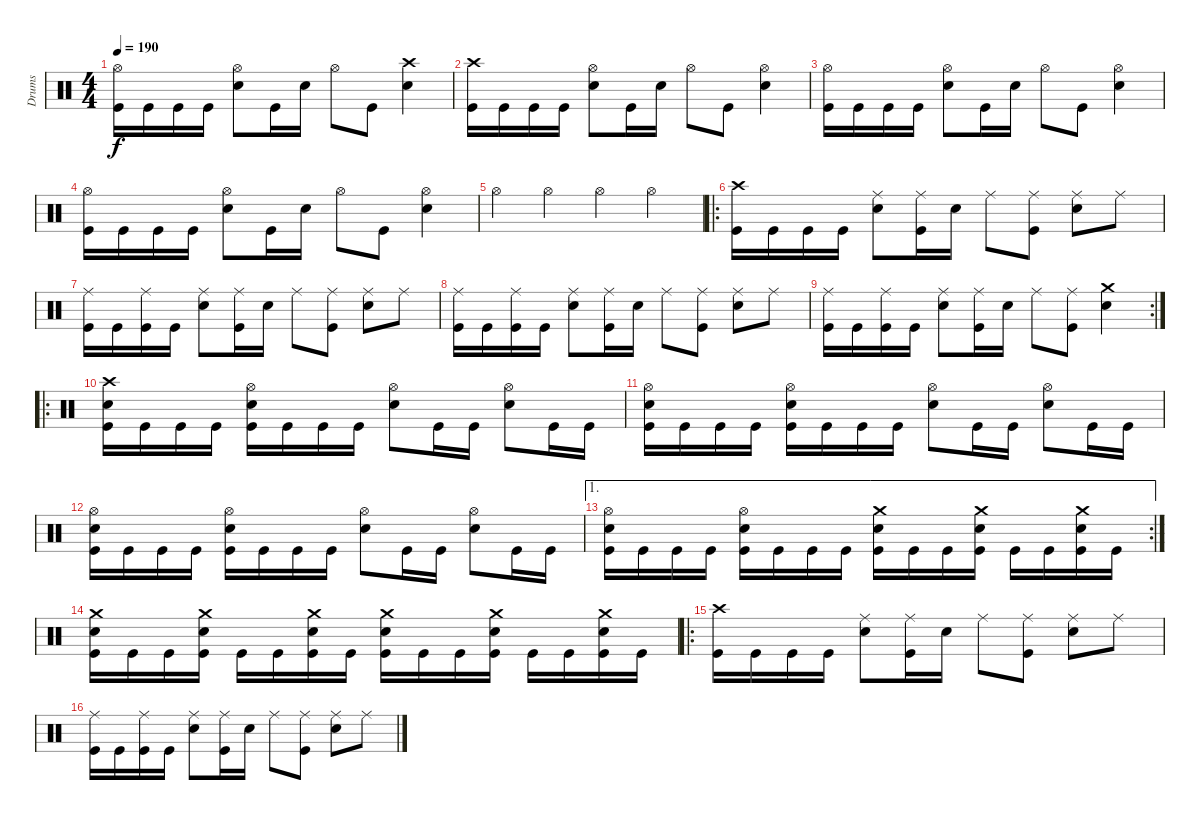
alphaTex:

\track ("Drums" "Drums") {instrument percussion}
\staff {score}
\articulation defaults
\ts (4 4)
\tempo 190
\clef neutral
\ks c
("Hi-Hat (open)" "Kick (hit)").16{dy f} "Kick (hit)".16 "Kick (hit)".16 "Kick (hit)".16 ("Hi-Hat (open)" "Electric Snare (hit)").8 "Kick (hit)".16 "Electric Snare (hit)".16 "Hi-Hat (open)".8 "Kick (hit)".8 ("Crash high (hit)" "Electric Snare (hit)").4 |
("Crash high (hit)" "Kick (hit)").16 "Kick (hit)".16 "Kick (hit)".16 "Kick (hit)".16 ("Hi-Hat (open)" "Electric Snare (hit)").8 "Kick (hit)".16 "Electric Snare (hit)".16 "Hi-Hat (open)".8 "Kick (hit)".8 ("Hi-Hat (open)" "Electric Snare (hit)").4 |
("Hi-Hat (open)" "Kick (hit)").16 "Kick (hit)".16 "Kick (hit)".16 "Kick (hit)".16 ("Hi-Hat (open)" "Electric Snare (hit)").8 "Kick (hit)".16 "Electric Snare (hit)".16 "Hi-Hat (open)".8 "Kick (hit)".8 ("Hi-Hat (open)" "Electric Snare (hit)").4 |
("Hi-Hat (open)" "Kick (hit)").16 "Kick (hit)".16 "Kick (hit)".16 "Kick (hit)".16 ("Hi-Hat (open)" "Electric Snare (hit)").8 "Kick (hit)".16 "Electric Snare (hit)".16 "Hi-Hat (open)".8 "Kick (hit)".8 ("Hi-Hat (open)" "Electric Snare (hit)").4 |
"Hi-Hat (open)".4 "Hi-Hat (open)".4 "Hi-Hat (open)".4 "Hi-Hat (open)".4 |
\ro
("Crash high (hit)" "Kick (hit)").16 "Kick (hit)".16 "Kick (hit)".16 "Kick (hit)".16 ("Ride (middle)" "Electric Snare (hit)").8 ("Ride (middle)" "Kick (hit)").16 "Electric Snare (hit)".16 "Ride (middle)".8 ("Ride (middle)" "Kick (hit)").8 ("Ride (middle)" "Electric Snare (hit)").8 "Ride (middle)".8 |
("Ride (middle)" "Kick (hit)").16 "Kick (hit)".16 ("Ride (middle)" "Kick (hit)").16 "Kick (hit)".16 ("Ride (middle)" "Electric Snare (hit)").8 ("Ride (middle)" "Kick (hit)").16 "Electric Snare (hit)".16 "Ride (middle)".8 ("Ride (middle)" "Kick (hit)").8 ("Ride (middle)" "Electric Snare (hit)").8 "Ride (middle)".8 |
("Ride (middle)" "Kick (hit)").16 "Kick (hit)".16 ("Ride (middle)" "Kick (hit)").16 "Kick (hit)".16 ("Ride (middle)" "Electric Snare (hit)").8 ("Ride (middle)" "Kick (hit)").16 "Electric Snare (hit)".16 "Ride (middle)".8 ("Ride (middle)" "Kick (hit)").8 ("Ride (middle)" "Electric Snare (hit)").8 "Ride (middle)".8 |
\rc 2
("Ride (middle)" "Kick (hit)").16 "Kick (hit)".16 ("Ride (middle)" "Kick (hit)").16 "Kick (hit)".16 ("Ride (middle)" "Electric Snare (hit)").8 ("Ride (middle)" "Kick (hit)").16 "Electric Snare (hit)".16 "Ride (middle)".8 ("Ride (middle)" "Kick (hit)").8 ("Crash medium (hit)" "Electric Snare (hit)").4 |
\ro
("Crash high (hit)" "Electric Snare (hit)" "Kick (hit)").16 "Kick (hit)".16 "Kick (hit)".16 "Kick (hit)".16 ("Hi-Hat (open)" "Electric Snare (hit)" "Kick (hit)").16 "Kick (hit)".16 "Kick (hit)".16 "Kick (hit)".16 ("Hi-Hat (open)" "Electric Snare (hit)").8 "Kick (hit)".16 "Kick (hit)".16 ("Hi-Hat (open)" "Electric Snare (hit)").8 "Kick (hit)".16 "Kick (hit)".16 |
("Hi-Hat (open)" "Electric Snare (hit)" "Kick (hit)").16 "Kick (hit)".16 "Kick (hit)".16 "Kick (hit)".16 ("Hi-Hat (open)" "Electric Snare (hit)" "Kick (hit)").16 "Kick (hit)".16 "Kick (hit)".16 "Kick (hit)".16 ("Hi-Hat (open)" "Electric Snare (hit)").8 "Kick (hit)".16 "Kick (hit)".16 ("Hi-Hat (open)" "Electric Snare (hit)").8 "Kick (hit)".16 "Kick (hit)".16 |
("Hi-Hat (open)" "Electric Snare (hit)" "Kick (hit)").16 "Kick (hit)".16 "Kick (hit)".16 "Kick (hit)".16 ("Hi-Hat (open)" "Electric Snare (hit)" "Kick (hit)").16 "Kick (hit)".16 "Kick (hit)".16 "Kick (hit)".16 ("Hi-Hat (open)" "Electric Snare (hit)").8 "Kick (hit)".16 "Kick (hit)".16 ("Hi-Hat (open)" "Electric Snare (hit)").8 "Kick (hit)".16 "Kick (hit)".16 |
\ae 1
\rc 2
("Hi-Hat (open)" "Electric Snare (hit)" "Kick (hit)").16 "Kick (hit)".16 "Kick (hit)".16 "Kick (hit)".16 ("Hi-Hat (open)" "Electric Snare (hit)" "Kick (hit)").16 "Kick (hit)".16 "Kick (hit)".16 "Kick (hit)".16 ("Crash medium (hit)" "Electric Snare (hit)" "Kick (hit)").16 "Kick (hit)".16 "Kick (hit)".16 ("Crash medium (hit)" "Electric Snare (hit)" "Kick (hit)").16 "Kick (hit)".16 "Kick (hit)".16 ("Crash medium (hit)" "Electric Snare (hit)" "Kick (hit)").16 "Kick (hit)".16 |
("Crash medium (hit)" "Electric Snare (hit)" "Kick (hit)").16 "Kick (hit)".16 "Kick (hit)".16 ("Crash medium (hit)" "Electric Snare (hit)" "Kick (hit)").16 "Kick (hit)".16 "Kick (hit)".16 ("Crash medium (hit)" "Electric Snare (hit)" "Kick (hit)").16 "Kick (hit)".16 ("Crash medium (hit)" "Electric Snare (hit)" "Kick (hit)").16 "Kick (hit)".16 "Kick (hit)".16 ("Crash medium (hit)" "Electric Snare (hit)" "Kick (hit)").16 "Kick (hit)".16 "Kick (hit)".16 ("Crash medium (hit)" "Electric Snare (hit)" "Kick (hit)").16 "Kick (hit)".16 |
\ro
("Crash high (hit)" "Kick (hit)").16 "Kick (hit)".16 "Kick (hit)".16 "Kick (hit)".16 ("Ride (middle)" "Electric Snare (hit)").8 ("Ride (middle)" "Kick (hit)").16 "Electric Snare (hit)".16 "Ride (middle)".8 ("Ride (middle)" "Kick (hit)").8 ("Ride (middle)" "Electric Snare (hit)").8 "Ride (middle)".8 |
("Ride (middle)" "Kick (hit)").16 "Kick (hit)".16 ("Ride (middle)" "Kick (hit)").16 "Kick (hit)".16 ("Ride (middle)" "Electric Snare (hit)").8 ("Ride (middle)" "Kick (hit)").16 "Electric Snare (hit)".16 "Ride (middle)".8 ("Ride (middle)" "Kick (hit)").8 ("Ride (middle)" "Electric Snare (hit)").8 "Ride (middle)".8
